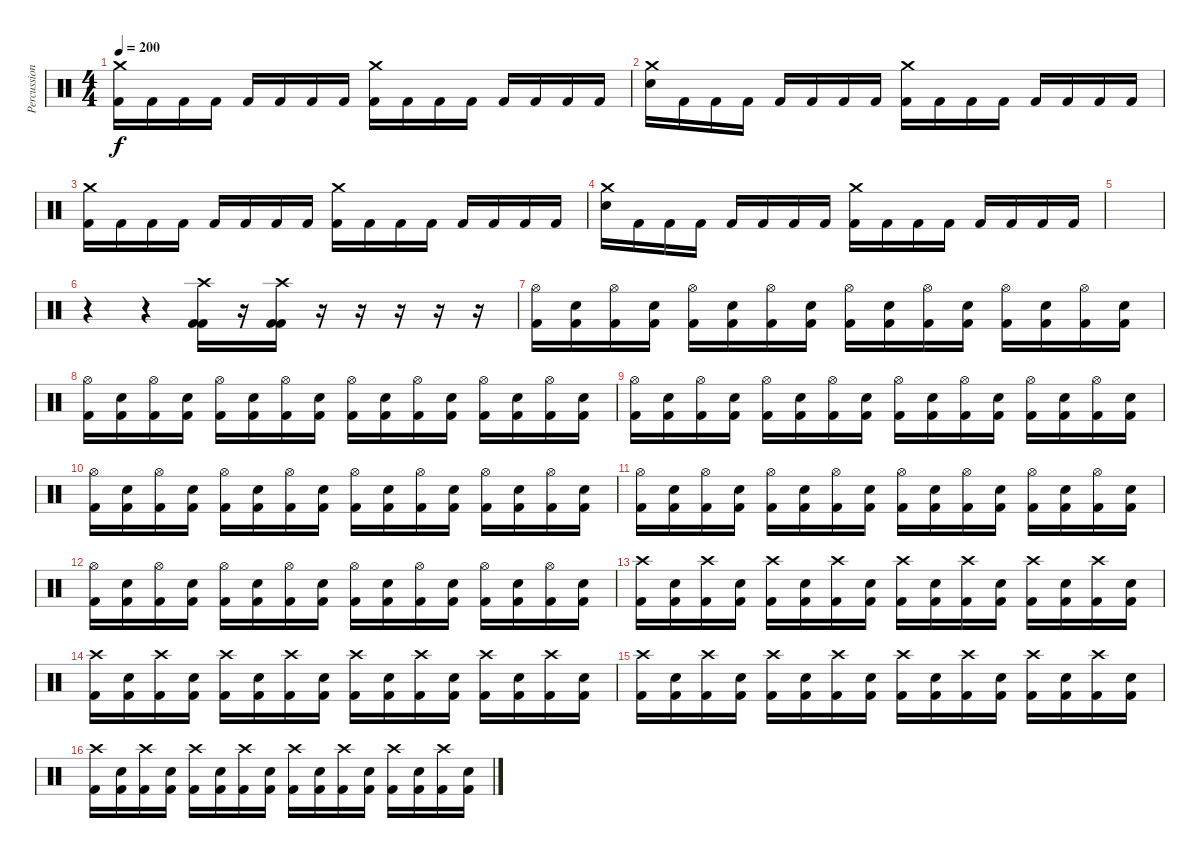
\track ("Percussion" "Percussion") {instrument percussion}
\staff {score}
\articulation defaults
\ts (4 4)
\tempo 200
\clef neutral
\ks c
("Crash medium (hit)" "Kick (hit) 2").16{dy f} "Kick (hit) 2".16 "Kick (hit) 2".16 "Kick (hit) 2".16 "Kick (hit) 2".16 "Kick (hit) 2".16 "Kick (hit) 2".16 "Kick (hit) 2".16 ("Crash medium (hit)" "Kick (hit) 2").16 "Kick (hit) 2".16 "Kick (hit) 2".16 "Kick (hit) 2".16 "Kick (hit) 2".16 "Kick (hit) 2".16 "Kick (hit) 2".16 "Kick (hit) 2".16 |
("Crash medium (hit)" "Electric Snare (hit)").16 "Kick (hit) 2".16 "Kick (hit) 2".16 "Kick (hit) 2".16 "Kick (hit) 2".16 "Kick (hit) 2".16 "Kick (hit) 2".16 "Kick (hit) 2".16 ("Crash medium (hit)" "Kick (hit) 2").16 "Kick (hit) 2".16 "Kick (hit) 2".16 "Kick (hit) 2".16 "Kick (hit) 2".16 "Kick (hit) 2".16 "Kick (hit) 2".16 "Kick (hit) 2".16 |
("Crash medium (hit)" "Kick (hit) 2").16 "Kick (hit) 2".16 "Kick (hit) 2".16 "Kick (hit) 2".16 "Kick (hit) 2".16 "Kick (hit) 2".16 "Kick (hit) 2".16 "Kick (hit) 2".16 ("Crash medium (hit)" "Kick (hit) 2").16 "Kick (hit) 2".16 "Kick (hit) 2".16 "Kick (hit) 2".16 "Kick (hit) 2".16 "Kick (hit) 2".16 "Kick (hit) 2".16 "Kick (hit) 2".16 |
("Crash medium (hit)" "Electric Snare (hit)").16 "Kick (hit) 2".16 "Kick (hit) 2".16 "Kick (hit) 2".16 "Kick (hit) 2".16 "Kick (hit) 2".16 "Kick (hit) 2".16 "Kick (hit) 2".16 ("Crash medium (hit)" "Kick (hit) 2").16 "Kick (hit) 2".16 "Kick (hit) 2".16 "Kick (hit) 2".16 "Kick (hit) 2".16 "Kick (hit) 2".16 "Kick (hit) 2".16 "Kick (hit) 2".16 |
|
r.4 r.4 ("Crash high (hit)" "Kick (hit) 2" "Kick (hit) 2").16 r.16 ("Crash high (hit)" "Kick (hit) 2" "Kick (hit) 2").16 r.16 r.16 r.16 r.16 r.16 |
("Hi-Hat (open)" "Kick (hit) 2").16 ("Electric Snare (hit)" "Kick (hit) 2").16 ("Hi-Hat (open)" "Kick (hit) 2").16 ("Electric Snare (hit)" "Kick (hit) 2").16 ("Hi-Hat (open)" "Kick (hit) 2").16 ("Electric Snare (hit)" "Kick (hit) 2").16 ("Hi-Hat (open)" "Kick (hit) 2").16 ("Electric Snare (hit)" "Kick (hit) 2").16 ("Hi-Hat (open)" "Kick (hit) 2").16 ("Electric Snare (hit)" "Kick (hit) 2").16 ("Hi-Hat (open)" "Kick (hit) 2").16 ("Electric Snare (hit)" "Kick (hit) 2").16 ("Hi-Hat (open)" "Kick (hit) 2").16 ("Electric Snare (hit)" "Kick (hit) 2").16 ("Hi-Hat (open)" "Kick (hit) 2").16 ("Electric Snare (hit)" "Kick (hit) 2").16 |
("Hi-Hat (open)" "Kick (hit) 2").16 ("Electric Snare (hit)" "Kick (hit) 2").16 ("Hi-Hat (open)" "Kick (hit) 2").16 ("Electric Snare (hit)" "Kick (hit) 2").16 ("Hi-Hat (open)" "Kick (hit) 2").16 ("Electric Snare (hit)" "Kick (hit) 2").16 ("Hi-Hat (open)" "Kick (hit) 2").16 ("Electric Snare (hit)" "Kick (hit) 2").16 ("Hi-Hat (open)" "Kick (hit) 2").16 ("Electric Snare (hit)" "Kick (hit) 2").16 ("Hi-Hat (open)" "Kick (hit) 2").16 ("Electric Snare (hit)" "Kick (hit) 2").16 ("Hi-Hat (open)" "Kick (hit) 2").16 ("Electric Snare (hit)" "Kick (hit) 2").16 ("Hi-Hat (open)" "Kick (hit) 2").16 ("Electric Snare (hit)" "Kick (hit) 2").16 |
("Hi-Hat (open)" "Kick (hit) 2").16 ("Electric Snare (hit)" "Kick (hit) 2").16 ("Hi-Hat (open)" "Kick (hit) 2").16 ("Electric Snare (hit)" "Kick (hit) 2").16 ("Hi-Hat (open)" "Kick (hit) 2").16 ("Electric Snare (hit)" "Kick (hit) 2").16 ("Hi-Hat (open)" "Kick (hit) 2").16 ("Electric Snare (hit)" "Kick (hit) 2").16 ("Hi-Hat (open)" "Kick (hit) 2").16 ("Electric Snare (hit)" "Kick (hit) 2").16 ("Hi-Hat (open)" "Kick (hit) 2").16 ("Electric Snare (hit)" "Kick (hit) 2").16 ("Hi-Hat (open)" "Kick (hit) 2").16 ("Electric Snare (hit)" "Kick (hit) 2").16 ("Hi-Hat (open)" "Kick (hit) 2").16 ("Electric Snare (hit)" "Kick (hit) 2").16 |
("Hi-Hat (open)" "Kick (hit) 2").16 ("Electric Snare (hit)" "Kick (hit) 2").16 ("Hi-Hat (open)" "Kick (hit) 2").16 ("Electric Snare (hit)" "Kick (hit) 2").16 ("Hi-Hat (open)" "Kick (hit) 2").16 ("Electric Snare (hit)" "Kick (hit) 2").16 ("Hi-Hat (open)" "Kick (hit) 2").16 ("Electric Snare (hit)" "Kick (hit) 2").16 ("Hi-Hat (open)" "Kick (hit) 2").16 ("Electric Snare (hit)" "Kick (hit) 2").16 ("Hi-Hat (open)" "Kick (hit) 2").16 ("Electric Snare (hit)" "Kick (hit) 2").16 ("Hi-Hat (open)" "Kick (hit) 2").16 ("Electric Snare (hit)" "Kick (hit) 2").16 ("Hi-Hat (open)" "Kick (hit) 2").16 ("Electric Snare (hit)" "Kick (hit) 2").16 |
("Hi-Hat (open)" "Kick (hit) 2").16 ("Electric Snare (hit)" "Kick (hit) 2").16 ("Hi-Hat (open)" "Kick (hit) 2").16 ("Electric Snare (hit)" "Kick (hit) 2").16 ("Hi-Hat (open)" "Kick (hit) 2").16 ("Electric Snare (hit)" "Kick (hit) 2").16 ("Hi-Hat (open)" "Kick (hit) 2").16 ("Electric Snare (hit)" "Kick (hit) 2").16 ("Hi-Hat (open)" "Kick (hit) 2").16 ("Electric Snare (hit)" "Kick (hit) 2").16 ("Hi-Hat (open)" "Kick (hit) 2").16 ("Electric Snare (hit)" "Kick (hit) 2").16 ("Hi-Hat (open)" "Kick (hit) 2").16 ("Electric Snare (hit)" "Kick (hit) 2").16 ("Hi-Hat (open)" "Kick (hit) 2").16 ("Electric Snare (hit)" "Kick (hit) 2").16 |
("Hi-Hat (open)" "Kick (hit) 2").16 ("Electric Snare (hit)" "Kick (hit) 2").16 ("Hi-Hat (open)" "Kick (hit) 2").16 ("Electric Snare (hit)" "Kick (hit) 2").16 ("Hi-Hat (open)" "Kick (hit) 2").16 ("Electric Snare (hit)" "Kick (hit) 2").16 ("Hi-Hat (open)" "Kick (hit) 2").16 ("Electric Snare (hit)" "Kick (hit) 2").16 ("Hi-Hat (open)" "Kick (hit) 2").16 ("Electric Snare (hit)" "Kick (hit) 2").16 ("Hi-Hat (open)" "Kick (hit) 2").16 ("Electric Snare (hit)" "Kick (hit) 2").16 ("Hi-Hat (open)" "Kick (hit) 2").16 ("Electric Snare (hit)" "Kick (hit) 2").16 ("Hi-Hat (open)" "Kick (hit) 2").16 ("Electric Snare (hit)" "Kick (hit) 2").16 |
("Crash high (hit)" "Kick (hit) 2").16 ("Electric Snare (hit)" "Kick (hit) 2").16 ("Crash high (hit)" "Kick (hit) 2").16 ("Electric Snare (hit)" "Kick (hit) 2").16 ("Crash high (hit)" "Kick (hit) 2").16 ("Electric Snare (hit)" "Kick (hit) 2").16 ("Crash high (hit)" "Kick (hit) 2").16 ("Electric Snare (hit)" "Kick (hit) 2").16 ("Crash high (hit)" "Kick (hit) 2").16 ("Electric Snare (hit)" "Kick (hit) 2").16 ("Crash high (hit)" "Kick (hit) 2").16 ("Electric Snare (hit)" "Kick (hit) 2").16 ("Crash high (hit)" "Kick (hit) 2").16 ("Electric Snare (hit)" "Kick (hit) 2").16 ("Crash high (hit)" "Kick (hit) 2").16 ("Electric Snare (hit)" "Kick (hit) 2").16 |
("Crash high (hit)" "Kick (hit) 2").16 ("Electric Snare (hit)" "Kick (hit) 2").16 ("Crash high (hit)" "Kick (hit) 2").16 ("Electric Snare (hit)" "Kick (hit) 2").16 ("Crash high (hit)" "Kick (hit) 2").16 ("Electric Snare (hit)" "Kick (hit) 2").16 ("Crash high (hit)" "Kick (hit) 2").16 ("Electric Snare (hit)" "Kick (hit) 2").16 ("Crash high (hit)" "Kick (hit) 2").16 ("Electric Snare (hit)" "Kick (hit) 2").16 ("Crash high (hit)" "Kick (hit) 2").16 ("Electric Snare (hit)" "Kick (hit) 2").16 ("Crash high (hit)" "Kick (hit) 2").16 ("Electric Snare (hit)" "Kick (hit) 2").16 ("Crash high (hit)" "Kick (hit) 2").16 ("Electric Snare (hit)" "Kick (hit) 2").16 |
("Crash high (hit)" "Kick (hit) 2").16 ("Electric Snare (hit)" "Kick (hit) 2").16 ("Crash high (hit)" "Kick (hit) 2").16 ("Electric Snare (hit)" "Kick (hit) 2").16 ("Crash high (hit)" "Kick (hit) 2").16 ("Electric Snare (hit)" "Kick (hit) 2").16 ("Crash high (hit)" "Kick (hit) 2").16 ("Electric Snare (hit)" "Kick (hit) 2").16 ("Crash high (hit)" "Kick (hit) 2").16 ("Electric Snare (hit)" "Kick (hit) 2").16 ("Crash high (hit)" "Kick (hit) 2").16 ("Electric Snare (hit)" "Kick (hit) 2").16 ("Crash high (hit)" "Kick (hit) 2").16 ("Electric Snare (hit)" "Kick (hit) 2").16 ("Crash high (hit)" "Kick (hit) 2").16 ("Electric Snare (hit)" "Kick (hit) 2").16 |
("Crash high (hit)" "Kick (hit) 2").16 ("Electric Snare (hit)" "Kick (hit) 2").16 ("Crash high (hit)" "Kick (hit) 2").16 ("Electric Snare (hit)" "Kick (hit) 2").16 ("Crash high (hit)" "Kick (hit) 2").16 ("Electric Snare (hit)" "Kick (hit) 2").16 ("Crash high (hit)" "Kick (hit) 2").16 ("Electric Snare (hit)" "Kick (hit) 2").16 ("Crash high (hit)" "Kick (hit) 2").16 ("Electric Snare (hit)" "Kick (hit) 2").16 ("Crash high (hit)" "Kick (hit) 2").16 ("Electric Snare (hit)" "Kick (hit) 2").16 ("Crash high (hit)" "Kick (hit) 2").16 ("Electric Snare (hit)" "Kick (hit) 2").16 ("Crash high (hit)" "Kick (hit) 2").16 ("Electric Snare (hit)" "Kick (hit) 2").16
